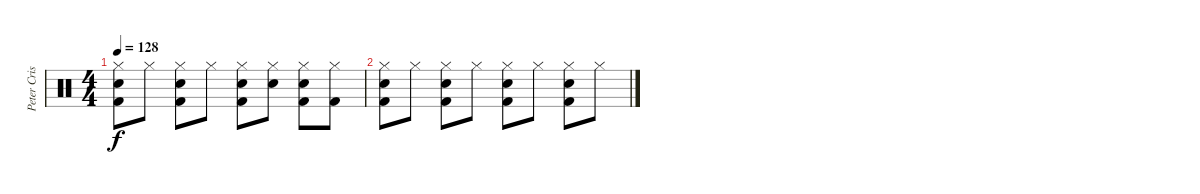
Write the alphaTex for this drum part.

\track ("Peter Criss" "Peter Cris") {instrument percussion}
\staff {score}
\articulation defaults
\ts (4 4)
\tempo 128
\clef neutral
\ks c
("Hi-Hat (closed)" "Electric Snare (hit)" "Kick (hit) 2").8{dy f} "Hi-Hat (closed)".8 ("Hi-Hat (closed)" "Electric Snare (hit)" "Kick (hit) 2").8 "Hi-Hat (closed)".8 ("Hi-Hat (closed)" "Electric Snare (hit)" "Kick (hit) 2").8 ("Hi-Hat (closed)" "Electric Snare (hit)").8 ("Hi-Hat (closed)" "Electric Snare (hit)" "Kick (hit) 2").8 ("Hi-Hat (closed)" "Kick (hit) 2").8 |
("Hi-Hat (closed)" "Electric Snare (hit)" "Kick (hit) 2").8 "Hi-Hat (closed)".8 ("Hi-Hat (closed)" "Electric Snare (hit)" "Kick (hit) 2").8 "Hi-Hat (closed)".8 ("Hi-Hat (closed)" "Electric Snare (hit)" "Kick (hit) 2").8 "Hi-Hat (closed)".8 ("Hi-Hat (closed)" "Electric Snare (hit)" "Kick (hit) 2").8 "Hi-Hat (closed)".8
